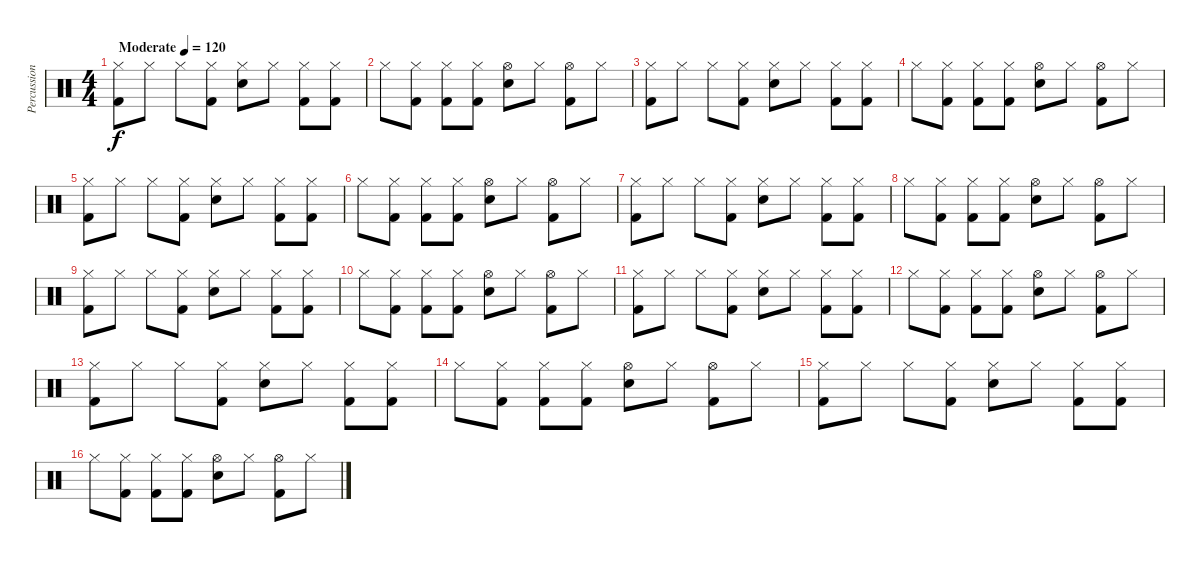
\track ("Percussions" "Percussion") {instrument percussion}
\staff {score}
\articulation defaults
\ts (4 4)
\tempo (120 "Moderate")
\clef neutral
\ks c
("Hi-Hat (closed)" "Kick (hit) 2").8{dy f} "Hi-Hat (closed)".8 "Hi-Hat (closed)".8 ("Hi-Hat (closed)" "Kick (hit) 2").8 ("Hi-Hat (closed)" "Snare (hit) 2").8 "Hi-Hat (closed)".8 ("Hi-Hat (closed)" "Kick (hit) 2").8 ("Hi-Hat (closed)" "Kick (hit) 2").8 |
"Hi-Hat (closed)".8 ("Hi-Hat (closed)" "Kick (hit) 2").8 ("Hi-Hat (closed)" "Kick (hit) 2").8 ("Hi-Hat (closed)" "Kick (hit) 2").8 ("Hi-Hat (open)" "Snare (hit) 2").8 "Hi-Hat (closed)".8 ("Hi-Hat (open)" "Kick (hit) 2").8 "Hi-Hat (closed)".8 |
("Hi-Hat (closed)" "Kick (hit) 2").8 "Hi-Hat (closed)".8 "Hi-Hat (closed)".8 ("Hi-Hat (closed)" "Kick (hit) 2").8 ("Hi-Hat (closed)" "Snare (hit) 2").8 "Hi-Hat (closed)".8 ("Hi-Hat (closed)" "Kick (hit) 2").8 ("Hi-Hat (closed)" "Kick (hit) 2").8 |
"Hi-Hat (closed)".8 ("Hi-Hat (closed)" "Kick (hit) 2").8 ("Hi-Hat (closed)" "Kick (hit) 2").8 ("Hi-Hat (closed)" "Kick (hit) 2").8 ("Hi-Hat (open)" "Snare (hit) 2").8 "Hi-Hat (closed)".8 ("Hi-Hat (open)" "Kick (hit) 2").8 "Hi-Hat (closed)".8 |
("Hi-Hat (closed)" "Kick (hit) 2").8 "Hi-Hat (closed)".8 "Hi-Hat (closed)".8 ("Hi-Hat (closed)" "Kick (hit) 2").8 ("Hi-Hat (closed)" "Snare (hit) 2").8 "Hi-Hat (closed)".8 ("Hi-Hat (closed)" "Kick (hit) 2").8 ("Hi-Hat (closed)" "Kick (hit) 2").8 |
"Hi-Hat (closed)".8 ("Hi-Hat (closed)" "Kick (hit) 2").8 ("Hi-Hat (closed)" "Kick (hit) 2").8 ("Hi-Hat (closed)" "Kick (hit) 2").8 ("Hi-Hat (open)" "Snare (hit) 2").8 "Hi-Hat (closed)".8 ("Hi-Hat (open)" "Kick (hit) 2").8 "Hi-Hat (closed)".8 |
("Hi-Hat (closed)" "Kick (hit) 2").8 "Hi-Hat (closed)".8 "Hi-Hat (closed)".8 ("Hi-Hat (closed)" "Kick (hit) 2").8 ("Hi-Hat (closed)" "Snare (hit) 2").8 "Hi-Hat (closed)".8 ("Hi-Hat (closed)" "Kick (hit) 2").8 ("Hi-Hat (closed)" "Kick (hit) 2").8 |
"Hi-Hat (closed)".8 ("Hi-Hat (closed)" "Kick (hit) 2").8 ("Hi-Hat (closed)" "Kick (hit) 2").8 ("Hi-Hat (closed)" "Kick (hit) 2").8 ("Hi-Hat (open)" "Snare (hit) 2").8 "Hi-Hat (closed)".8 ("Hi-Hat (open)" "Kick (hit) 2").8 "Hi-Hat (closed)".8 |
("Hi-Hat (closed)" "Kick (hit) 2").8 "Hi-Hat (closed)".8 "Hi-Hat (closed)".8 ("Hi-Hat (closed)" "Kick (hit) 2").8 ("Hi-Hat (closed)" "Snare (hit) 2").8 "Hi-Hat (closed)".8 ("Hi-Hat (closed)" "Kick (hit) 2").8 ("Hi-Hat (closed)" "Kick (hit) 2").8 |
"Hi-Hat (closed)".8 ("Hi-Hat (closed)" "Kick (hit) 2").8 ("Hi-Hat (closed)" "Kick (hit) 2").8 ("Hi-Hat (closed)" "Kick (hit) 2").8 ("Hi-Hat (open)" "Snare (hit) 2").8 "Hi-Hat (closed)".8 ("Hi-Hat (open)" "Kick (hit) 2").8 "Hi-Hat (closed)".8 |
("Hi-Hat (closed)" "Kick (hit) 2").8 "Hi-Hat (closed)".8 "Hi-Hat (closed)".8 ("Hi-Hat (closed)" "Kick (hit) 2").8 ("Hi-Hat (closed)" "Snare (hit) 2").8 "Hi-Hat (closed)".8 ("Hi-Hat (closed)" "Kick (hit) 2").8 ("Hi-Hat (closed)" "Kick (hit) 2").8 |
"Hi-Hat (closed)".8 ("Hi-Hat (closed)" "Kick (hit) 2").8 ("Hi-Hat (closed)" "Kick (hit) 2").8 ("Hi-Hat (closed)" "Kick (hit) 2").8 ("Hi-Hat (open)" "Snare (hit) 2").8 "Hi-Hat (closed)".8 ("Hi-Hat (open)" "Kick (hit) 2").8 "Hi-Hat (closed)".8 |
("Hi-Hat (closed)" "Kick (hit) 2").8 "Hi-Hat (closed)".8 "Hi-Hat (closed)".8 ("Hi-Hat (closed)" "Kick (hit) 2").8 ("Hi-Hat (closed)" "Snare (hit) 2").8 "Hi-Hat (closed)".8 ("Hi-Hat (closed)" "Kick (hit) 2").8 ("Hi-Hat (closed)" "Kick (hit) 2").8 |
"Hi-Hat (closed)".8 ("Hi-Hat (closed)" "Kick (hit) 2").8 ("Hi-Hat (closed)" "Kick (hit) 2").8 ("Hi-Hat (closed)" "Kick (hit) 2").8 ("Hi-Hat (open)" "Snare (hit) 2").8 "Hi-Hat (closed)".8 ("Hi-Hat (open)" "Kick (hit) 2").8 "Hi-Hat (closed)".8 |
("Hi-Hat (closed)" "Kick (hit) 2").8 "Hi-Hat (closed)".8 "Hi-Hat (closed)".8 ("Hi-Hat (closed)" "Kick (hit) 2").8 ("Hi-Hat (closed)" "Snare (hit) 2").8 "Hi-Hat (closed)".8 ("Hi-Hat (closed)" "Kick (hit) 2").8 ("Hi-Hat (closed)" "Kick (hit) 2").8 |
"Hi-Hat (closed)".8 ("Hi-Hat (closed)" "Kick (hit) 2").8 ("Hi-Hat (closed)" "Kick (hit) 2").8 ("Hi-Hat (closed)" "Kick (hit) 2").8 ("Hi-Hat (open)" "Snare (hit) 2").8 "Hi-Hat (closed)".8 ("Hi-Hat (open)" "Kick (hit) 2").8 "Hi-Hat (closed)".8
